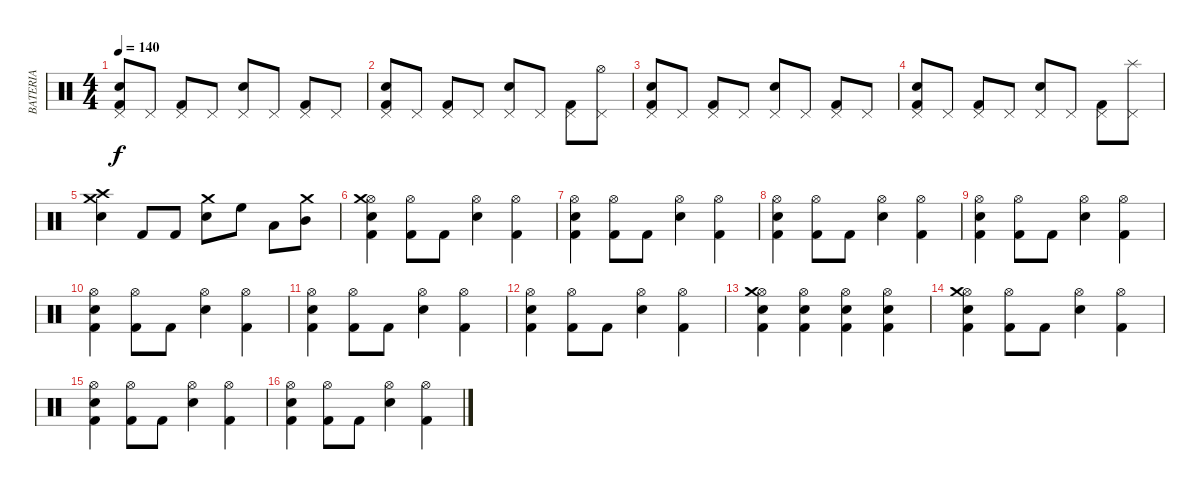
\track ("BATERIA" "BATERIA") {instrument percussion}
\staff {score}
\articulation defaults
\ts (4 4)
\tempo 140
\clef neutral
\ks c
("Kick (hit) 2" "Electric Snare (hit)" "Pedal Hi-Hat (hit)").8{dy f} "Pedal Hi-Hat (hit)".8 ("Kick (hit) 2" "Pedal Hi-Hat (hit)").8 "Pedal Hi-Hat (hit)".8 ("Electric Snare (hit)" "Pedal Hi-Hat (hit)").8 "Pedal Hi-Hat (hit)".8 ("Kick (hit) 2" "Pedal Hi-Hat (hit)").8 "Pedal Hi-Hat (hit)".8 |
("Kick (hit) 2" "Electric Snare (hit)" "Pedal Hi-Hat (hit)").8 "Pedal Hi-Hat (hit)".8 ("Kick (hit) 2" "Pedal Hi-Hat (hit)").8 "Pedal Hi-Hat (hit)".8 ("Electric Snare (hit)" "Pedal Hi-Hat (hit)").8 "Pedal Hi-Hat (hit)".8 ("Kick (hit) 2" "Pedal Hi-Hat (hit)").8 ("Pedal Hi-Hat (hit)" "Hi-Hat (open)").8 |
("Kick (hit) 2" "Electric Snare (hit)" "Pedal Hi-Hat (hit)").8 "Pedal Hi-Hat (hit)".8 ("Kick (hit) 2" "Pedal Hi-Hat (hit)").8 "Pedal Hi-Hat (hit)".8 ("Electric Snare (hit)" "Pedal Hi-Hat (hit)").8 "Pedal Hi-Hat (hit)".8 ("Kick (hit) 2" "Pedal Hi-Hat (hit)").8 "Pedal Hi-Hat (hit)".8 |
("Kick (hit) 2" "Electric Snare (hit)" "Pedal Hi-Hat (hit)").8 "Pedal Hi-Hat (hit)".8 ("Kick (hit) 2" "Pedal Hi-Hat (hit)").8 "Pedal Hi-Hat (hit)".8 ("Electric Snare (hit)" "Pedal Hi-Hat (hit)").8 "Pedal Hi-Hat (hit)".8 ("Kick (hit) 2" "Pedal Hi-Hat (hit)").8 ("Pedal Hi-Hat (hit)" "Splash (hit)").8 |
("Electric Snare (hit)" "Crash medium (hit)" "Crash high (hit)").4 "Kick (hit) 2".8 "Kick (hit) 2".8 ("Electric Snare (hit)" "Crash medium (hit)").8 "High Floor Tom (hit)".8 "Low Tom (hit)".8 ("Mid Tom (hit)" "Crash medium (hit)").8 |
("Kick (hit) 2" "Electric Snare (hit)" "Hi-Hat (open)" "Crash medium (hit)").4 ("Kick (hit) 2" "Hi-Hat (open)").8 "Kick (hit) 2".8 ("Electric Snare (hit)" "Hi-Hat (open)").4 ("Kick (hit) 2" "Hi-Hat (open)").4 |
("Kick (hit) 2" "Electric Snare (hit)" "Hi-Hat (open)").4 ("Kick (hit) 2" "Hi-Hat (open)").8 "Kick (hit) 2".8 ("Electric Snare (hit)" "Hi-Hat (open)").4 ("Kick (hit) 2" "Hi-Hat (open)").4 |
("Kick (hit) 2" "Electric Snare (hit)" "Hi-Hat (open)").4 ("Kick (hit) 2" "Hi-Hat (open)").8 "Kick (hit) 2".8 ("Electric Snare (hit)" "Hi-Hat (open)").4 ("Kick (hit) 2" "Hi-Hat (open)").4 |
("Kick (hit) 2" "Electric Snare (hit)" "Hi-Hat (open)").4 ("Kick (hit) 2" "Hi-Hat (open)").8 "Kick (hit) 2".8 ("Electric Snare (hit)" "Hi-Hat (open)").4 ("Kick (hit) 2" "Hi-Hat (open)").4 |
("Kick (hit) 2" "Electric Snare (hit)" "Hi-Hat (open)").4 ("Kick (hit) 2" "Hi-Hat (open)").8 "Kick (hit) 2".8 ("Electric Snare (hit)" "Hi-Hat (open)").4 ("Kick (hit) 2" "Hi-Hat (open)").4 |
("Kick (hit) 2" "Electric Snare (hit)" "Hi-Hat (open)").4 ("Kick (hit) 2" "Hi-Hat (open)").8 "Kick (hit) 2".8 ("Electric Snare (hit)" "Hi-Hat (open)").4 ("Kick (hit) 2" "Hi-Hat (open)").4 |
("Kick (hit) 2" "Electric Snare (hit)" "Hi-Hat (open)").4 ("Kick (hit) 2" "Hi-Hat (open)").8 "Kick (hit) 2".8 ("Electric Snare (hit)" "Hi-Hat (open)").4 ("Kick (hit) 2" "Hi-Hat (open)").4 |
("Kick (hit) 2" "Electric Snare (hit)" "Hi-Hat (open)" "Crash medium (hit)").4 ("Kick (hit) 2" "Electric Snare (hit)" "Hi-Hat (open)").4 ("Kick (hit) 2" "Electric Snare (hit)" "Hi-Hat (open)").4 ("Kick (hit) 2" "Electric Snare (hit)" "Hi-Hat (open)").4 |
("Kick (hit) 2" "Electric Snare (hit)" "Hi-Hat (open)" "Crash medium (hit)").4 ("Kick (hit) 2" "Hi-Hat (open)").8 "Kick (hit) 2".8 ("Electric Snare (hit)" "Hi-Hat (open)").4 ("Kick (hit) 2" "Hi-Hat (open)").4 |
("Kick (hit) 2" "Electric Snare (hit)" "Hi-Hat (open)").4 ("Kick (hit) 2" "Hi-Hat (open)").8 "Kick (hit) 2".8 ("Electric Snare (hit)" "Hi-Hat (open)").4 ("Kick (hit) 2" "Hi-Hat (open)").4 |
("Kick (hit) 2" "Electric Snare (hit)" "Hi-Hat (open)").4 ("Kick (hit) 2" "Hi-Hat (open)").8 "Kick (hit) 2".8 ("Electric Snare (hit)" "Hi-Hat (open)").4 ("Kick (hit) 2" "Hi-Hat (open)").4
